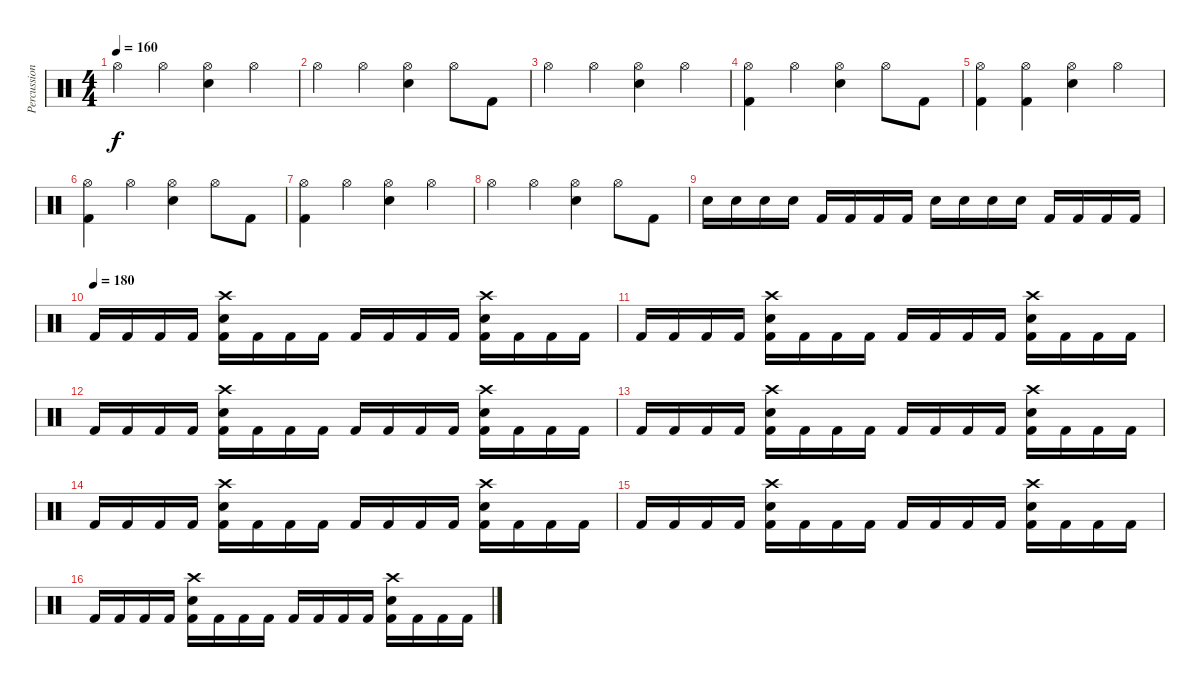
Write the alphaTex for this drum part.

\track ("Percussion" "Percussion") {instrument percussion}
\staff {score}
\articulation defaults
\ts (4 4)
\tempo 160
\clef neutral
\ks c "Hi-Hat (open)".4{dy f} "Hi-Hat (open)".4
("Hi-Hat (open)" "Snare (hit) 2").4 "Hi-Hat (open)".4 |
"Hi-Hat (open)".4 "Hi-Hat (open)".4 ("Hi-Hat (open)" "Snare (hit) 2").4 "Hi-Hat (open)".8 "Kick (hit) 2".8 |
"Hi-Hat (open)".4 "Hi-Hat (open)".4 ("Hi-Hat (open)" "Snare (hit) 2").4 "Hi-Hat (open)".4 |
("Hi-Hat (open)" "Kick (hit) 2").4 "Hi-Hat (open)".4 ("Hi-Hat (open)" "Snare (hit) 2").4 "Hi-Hat (open)".8 "Kick (hit) 2".8 |
("Hi-Hat (open)" "Kick (hit) 2").4 ("Hi-Hat (open)" "Kick (hit) 2").4 ("Hi-Hat (open)" "Snare (hit) 2").4 "Hi-Hat (open)".4 |
("Hi-Hat (open)" "Kick (hit) 2").4 "Hi-Hat (open)".4 ("Hi-Hat (open)" "Snare (hit) 2").4 "Hi-Hat (open)".8 "Kick (hit) 2".8 |
("Hi-Hat (open)" "Kick (hit) 2").4 "Hi-Hat (open)".4 ("Hi-Hat (open)" "Snare (hit) 2").4 "Hi-Hat (open)".4 |
"Hi-Hat (open)".4 "Hi-Hat (open)".4 ("Hi-Hat (open)" "Snare (hit) 2").4 "Hi-Hat (open)".8 "Kick (hit) 2".8 |
"Electric Snare (hit)".16 "Electric Snare (hit)".16 "Electric Snare (hit)".16 "Electric Snare (hit)".16 "Kick (hit) 2".16 "Kick (hit) 2".16 "Kick (hit) 2".16 "Kick (hit) 2".16 "Snare (hit) 2".16 "Snare (hit) 2".16 "Snare (hit) 2".16 "Snare (hit) 2".16 "Kick (hit) 2".16 "Kick (hit) 2".16 "Kick (hit) 2".16 "Kick (hit) 2".16 |
\tempo (180)
"Kick (hit) 2".16 "Kick (hit) 2".16 "Kick (hit) 2".16 "Kick (hit) 2".16 ("Crash high (hit)" "Kick (hit) 2" "Snare (hit) 2").16 "Kick (hit) 2".16 "Kick (hit) 2".16 "Kick (hit) 2".16 "Kick (hit) 2".16 "Kick (hit) 2".16 "Kick (hit) 2".16 "Kick (hit) 2".16 ("Crash high (hit)" "Kick (hit) 2" "Snare (hit) 2").16 "Kick (hit) 2".16 "Kick (hit) 2".16 "Kick (hit) 2".16 |
"Kick (hit) 2".16 "Kick (hit) 2".16 "Kick (hit) 2".16 "Kick (hit) 2".16 ("Crash high (hit)" "Kick (hit) 2" "Snare (hit) 2").16 "Kick (hit) 2".16 "Kick (hit) 2".16 "Kick (hit) 2".16 "Kick (hit) 2".16 "Kick (hit) 2".16 "Kick (hit) 2".16 "Kick (hit) 2".16 ("Crash high (hit)" "Kick (hit) 2" "Snare (hit) 2").16 "Kick (hit) 2".16 "Kick (hit) 2".16 "Kick (hit) 2".16 |
"Kick (hit) 2".16 "Kick (hit) 2".16 "Kick (hit) 2".16 "Kick (hit) 2".16 ("Crash high (hit)" "Kick (hit) 2" "Snare (hit) 2").16 "Kick (hit) 2".16 "Kick (hit) 2".16 "Kick (hit) 2".16 "Kick (hit) 2".16 "Kick (hit) 2".16 "Kick (hit) 2".16 "Kick (hit) 2".16 ("Crash high (hit)" "Kick (hit) 2" "Snare (hit) 2").16 "Kick (hit) 2".16 "Kick (hit) 2".16 "Kick (hit) 2".16 |
"Kick (hit) 2".16 "Kick (hit) 2".16 "Kick (hit) 2".16 "Kick (hit) 2".16 ("Crash high (hit)" "Kick (hit) 2" "Snare (hit) 2").16 "Kick (hit) 2".16 "Kick (hit) 2".16 "Kick (hit) 2".16 "Kick (hit) 2".16 "Kick (hit) 2".16 "Kick (hit) 2".16 "Kick (hit) 2".16 ("Crash high (hit)" "Kick (hit) 2" "Snare (hit) 2").16 "Kick (hit) 2".16 "Kick (hit) 2".16 "Kick (hit) 2".16 |
"Kick (hit) 2".16 "Kick (hit) 2".16 "Kick (hit) 2".16 "Kick (hit) 2".16 ("Crash high (hit)" "Kick (hit) 2" "Snare (hit) 2").16 "Kick (hit) 2".16 "Kick (hit) 2".16 "Kick (hit) 2".16 "Kick (hit) 2".16 "Kick (hit) 2".16 "Kick (hit) 2".16 "Kick (hit) 2".16 ("Crash high (hit)" "Kick (hit) 2" "Snare (hit) 2").16 "Kick (hit) 2".16 "Kick (hit) 2".16 "Kick (hit) 2".16 |
"Kick (hit) 2".16 "Kick (hit) 2".16 "Kick (hit) 2".16 "Kick (hit) 2".16 ("Crash high (hit)" "Kick (hit) 2" "Snare (hit) 2").16 "Kick (hit) 2".16 "Kick (hit) 2".16 "Kick (hit) 2".16 "Kick (hit) 2".16 "Kick (hit) 2".16 "Kick (hit) 2".16 "Kick (hit) 2".16 ("Crash high (hit)" "Kick (hit) 2" "Snare (hit) 2").16 "Kick (hit) 2".16 "Kick (hit) 2".16 "Kick (hit) 2".16 |
"Kick (hit) 2".16 "Kick (hit) 2".16 "Kick (hit) 2".16 "Kick (hit) 2".16 ("Crash high (hit)" "Kick (hit) 2" "Snare (hit) 2").16 "Kick (hit) 2".16 "Kick (hit) 2".16 "Kick (hit) 2".16 "Kick (hit) 2".16 "Kick (hit) 2".16 "Kick (hit) 2".16 "Kick (hit) 2".16 ("Crash high (hit)" "Kick (hit) 2" "Snare (hit) 2").16 "Kick (hit) 2".16 "Kick (hit) 2".16 "Kick (hit) 2".16
